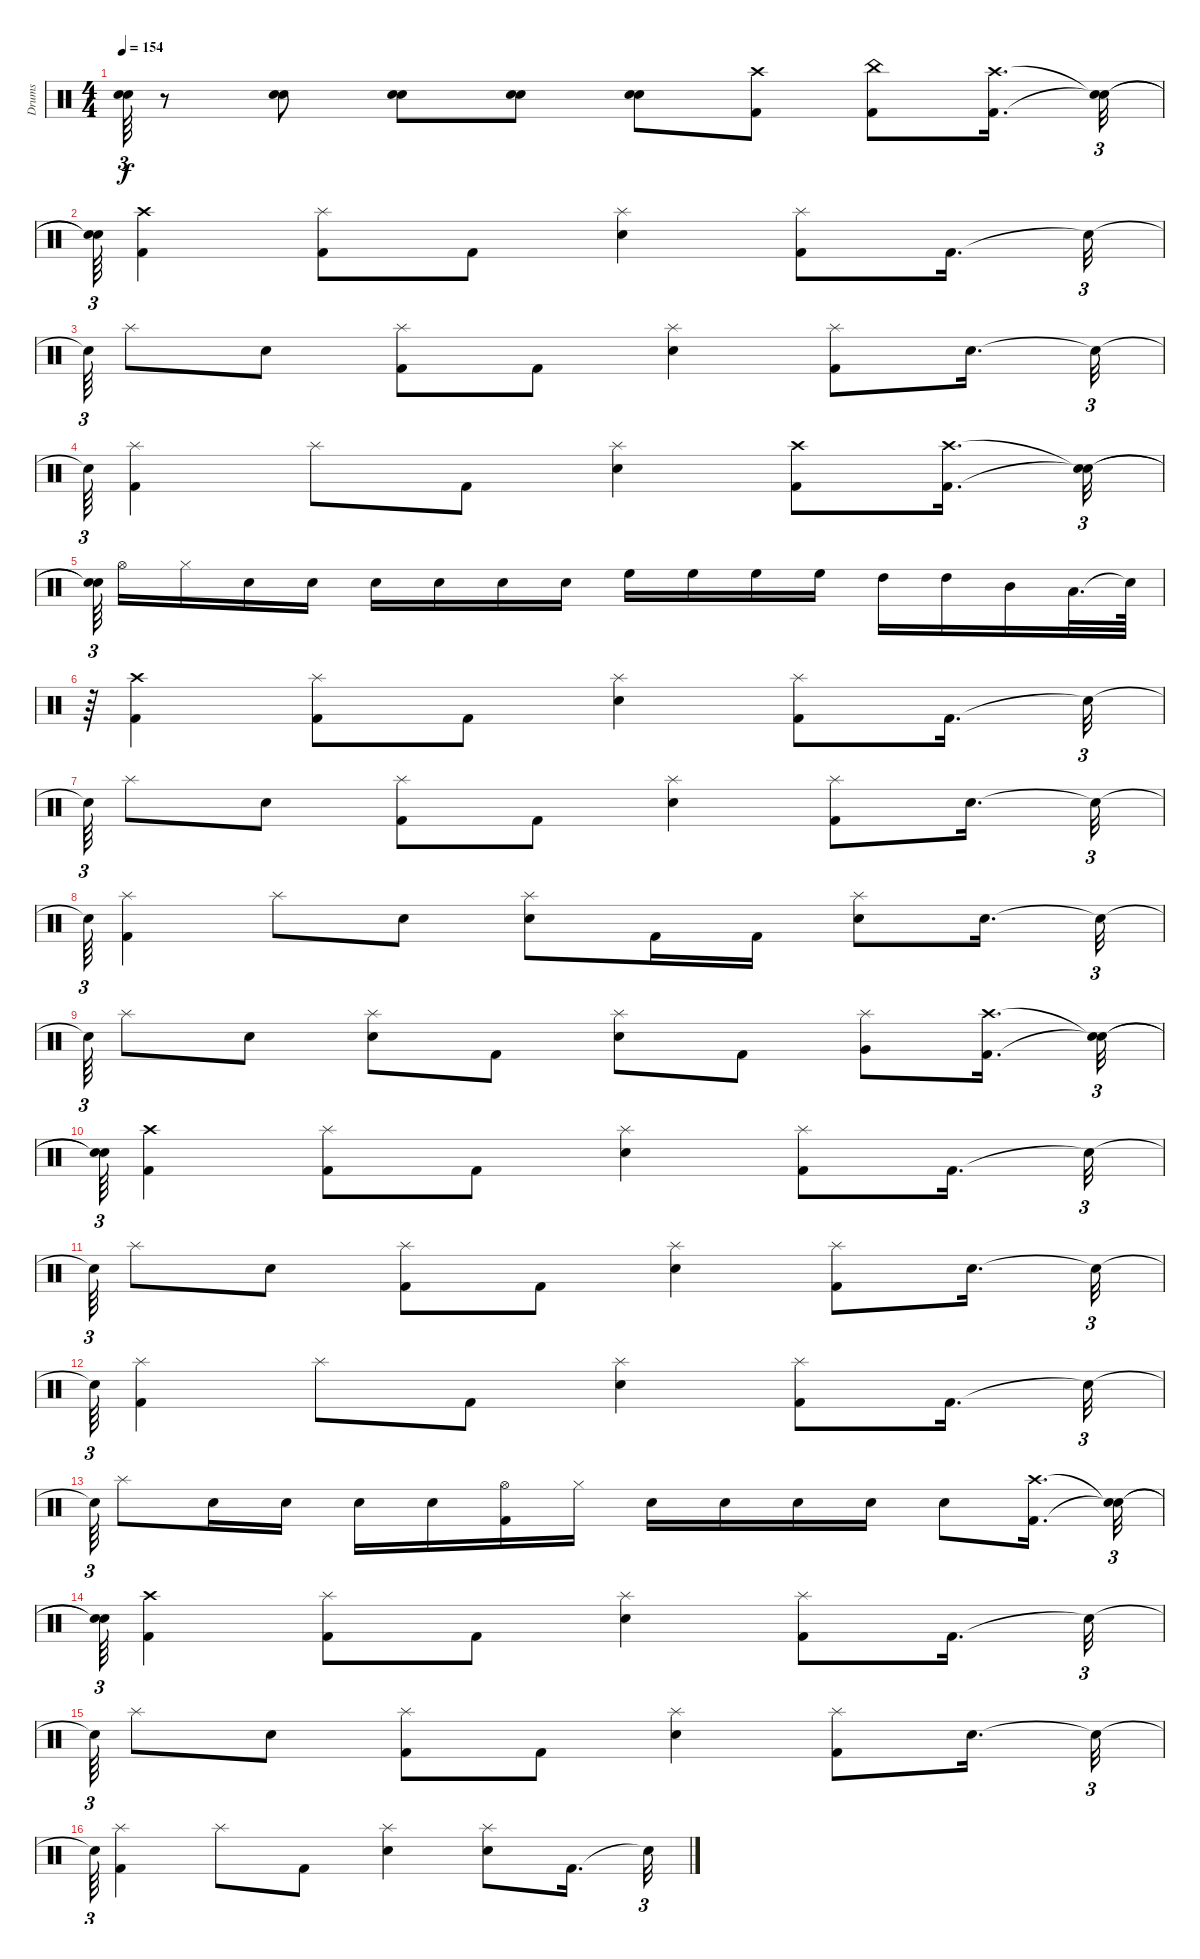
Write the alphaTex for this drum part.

\track ("Drums" "Drums") {instrument percussion}
\staff {score}
\articulation defaults
\ts (4 4)
\tempo 154
\clef neutral
\ks c
("Snare (hit)"{t} "Snare (hit)"{t}).64{tu (3 2) dy f} r.8 ("Electric Snare (hit)" "Electric Snare (hit)").8 ("Electric Snare (hit)" "Electric Snare (hit)").8 ("Electric Snare (hit)" "Electric Snare (hit)").8 ("Electric Snare (hit)" "Electric Snare (hit)").8 ("Kick (hit) 2" "Crash high (hit)").8 ("Kick (hit) 2" "China (hit)").8 ("Kick (hit) 2" "Crash high (hit)").16{d} ("Snare (hit)"{t} "Snare (hit)"{t}).32{tu (3 2)} |
("Snare (hit)"{t} "Snare (hit)"{t}).64{tu (3 2)} ("Kick (hit) 2" "Crash high (hit)").4 ("Kick (hit) 2" "Splash (hit)").8 "Kick (hit) 2".8 ("Electric Snare (hit)" "Splash (hit)").4 ("Kick (hit) 2" "Splash (hit)").8 "Kick (hit) 2".16{d} "Snare (hit)"{t}.32{tu (3 2)} |
"Snare (hit)"{t}.64{tu (3 2)} "Splash (hit)".8 "Electric Snare (hit)".8 ("Kick (hit) 2" "Splash (hit)").8 "Kick (hit) 2".8 ("Electric Snare (hit)" "Splash (hit)").4 ("Kick (hit) 2" "Splash (hit)").8 "Electric Snare (hit)".16{d} "Snare (hit)"{t}.32{tu (3 2)} |
"Snare (hit)"{t}.64{tu (3 2)} ("Kick (hit) 2" "Splash (hit)").4 "Splash (hit)".8 "Kick (hit) 2".8 ("Electric Snare (hit)" "Splash (hit)").4 ("Kick (hit) 2" "Crash high (hit)").8 ("Kick (hit) 2" "Crash high (hit)").16{d} ("Snare (hit)"{t} "Snare (hit)"{t}).32{tu (3 2)} |
("Snare (hit)"{t} "Snare (hit)"{t}).64{tu (3 2)} "Hi-Hat (open)".16 "Hi-Hat (closed)".16 "Electric Snare (hit)".16 "Electric Snare (hit)".16 "Electric Snare (hit)".16 "Electric Snare (hit)".16 "Electric Snare (hit)".16 "Electric Snare (hit)".16 "High Floor Tom (hit)".16 "High Floor Tom (hit)".16 "High Floor Tom (hit)".16 "High Floor Tom (hit)".16 "High Tom (hit)".16 "High Tom (hit)".16 "Mid Tom (hit)".16 "Low Tom (hit)".32{d} "Snare (hit)"{t}.64 |
r.64{tu (3 2)} ("Kick (hit) 2" "Crash high (hit)").4 ("Kick (hit) 2" "Splash (hit)").8 "Kick (hit) 2".8 ("Electric Snare (hit)" "Splash (hit)").4 ("Kick (hit) 2" "Splash (hit)").8 "Kick (hit) 2".16{d} "Snare (hit)"{t}.32{tu (3 2)} |
"Snare (hit)"{t}.64{tu (3 2)} "Splash (hit)".8 "Electric Snare (hit)".8 ("Kick (hit) 2" "Splash (hit)").8 "Kick (hit) 2".8 ("Electric Snare (hit)" "Splash (hit)").4 ("Kick (hit) 2" "Splash (hit)").8 "Electric Snare (hit)".16{d} "Snare (hit)"{t}.32{tu (3 2)} |
"Snare (hit)"{t}.64{tu (3 2)} ("Kick (hit) 2" "Splash (hit)").4 "Splash (hit)".8 "Electric Snare (hit)".8 ("Electric Snare (hit)" "Splash (hit)").8 "Kick (hit) 2".16 "Kick (hit) 2".16 ("Electric Snare (hit)" "Splash (hit)").8 "Electric Snare (hit)".16{d} "Snare (hit)"{t}.32{tu (3 2)} |
"Snare (hit)"{t}.64{tu (3 2)} "Splash (hit)".8 "Electric Snare (hit)".8 ("Electric Snare (hit)" "Splash (hit)").8 "Kick (hit) 2".8 ("Electric Snare (hit)" "Splash (hit)").8 "Kick (hit) 2".8 ("Very Low Tom (hit)" "Splash (hit)").8 ("Kick (hit) 2" "Crash high (hit)").16{d} ("Snare (hit)"{t} "Snare (hit)"{t}).32{tu (3 2)} |
("Snare (hit)"{t} "Snare (hit)"{t}).64{tu (3 2)} ("Crash high (hit)" "Kick (hit) 2").4 ("Kick (hit) 2" "Splash (hit)").8 "Kick (hit) 2".8 ("Electric Snare (hit)" "Splash (hit)").4 ("Kick (hit) 2" "Splash (hit)").8 "Kick (hit) 2".16{d} "Snare (hit)"{t}.32{tu (3 2)} |
"Snare (hit)"{t}.64{tu (3 2)} "Splash (hit)".8 "Electric Snare (hit)".8 ("Kick (hit) 2" "Splash (hit)").8 "Kick (hit) 2".8 ("Electric Snare (hit)" "Splash (hit)").4 ("Kick (hit) 2" "Splash (hit)").8 "Electric Snare (hit)".16{d} "Snare (hit)"{t}.32{tu (3 2)} |
"Snare (hit)"{t}.64{tu (3 2)} ("Kick (hit) 2" "Splash (hit)").4 "Splash (hit)".8 "Kick (hit) 2".8 ("Electric Snare (hit)" "Splash (hit)").4 ("Kick (hit) 2" "Splash (hit)").8 "Kick (hit) 2".16{d} "Snare (hit)"{t}.32{tu (3 2)} |
"Snare (hit)"{t}.64{tu (3 2)} "Splash (hit)".8 "Electric Snare (hit)".16 "Electric Snare (hit)".16 "Electric Snare (hit)".16 "Electric Snare (hit)".16 ("Hi-Hat (open)" "Kick (hit) 2").16 "Hi-Hat (closed)".16 "Electric Snare (hit)".16 "Electric Snare (hit)".16 "Electric Snare (hit)".16 "Electric Snare (hit)".16 "Electric Snare (hit)".8 ("Kick (hit) 2" "Crash high (hit)").16{d} ("Snare (hit)"{t} "Snare (hit)"{t}).32{tu (3 2)} |
("Snare (hit)"{t} "Snare (hit)"{t}).64{tu (3 2)} ("Kick (hit) 2" "Crash high (hit)").4 ("Kick (hit) 2" "Splash (hit)").8 "Kick (hit) 2".8 ("Electric Snare (hit)" "Splash (hit)").4 ("Kick (hit) 2" "Splash (hit)").8 "Kick (hit) 2".16{d} "Snare (hit)"{t}.32{tu (3 2)} |
"Snare (hit)"{t}.64{tu (3 2)} "Splash (hit)".8 "Electric Snare (hit)".8 ("Kick (hit) 2" "Splash (hit)").8 "Kick (hit) 2".8 ("Electric Snare (hit)" "Splash (hit)").4 ("Kick (hit) 2" "Splash (hit)").8 "Electric Snare (hit)".16{d} "Snare (hit)"{t}.32{tu (3 2)} |
"Snare (hit)"{t}.64{tu (3 2)} ("Kick (hit) 2" "Splash (hit)").4 "Splash (hit)".8 "Kick (hit) 2".8 ("Electric Snare (hit)" "Splash (hit)").4 ("Electric Snare (hit)" "Splash (hit)").8 "Kick (hit) 2".16{d} "Snare (hit)"{t}.32{tu (3 2)}
